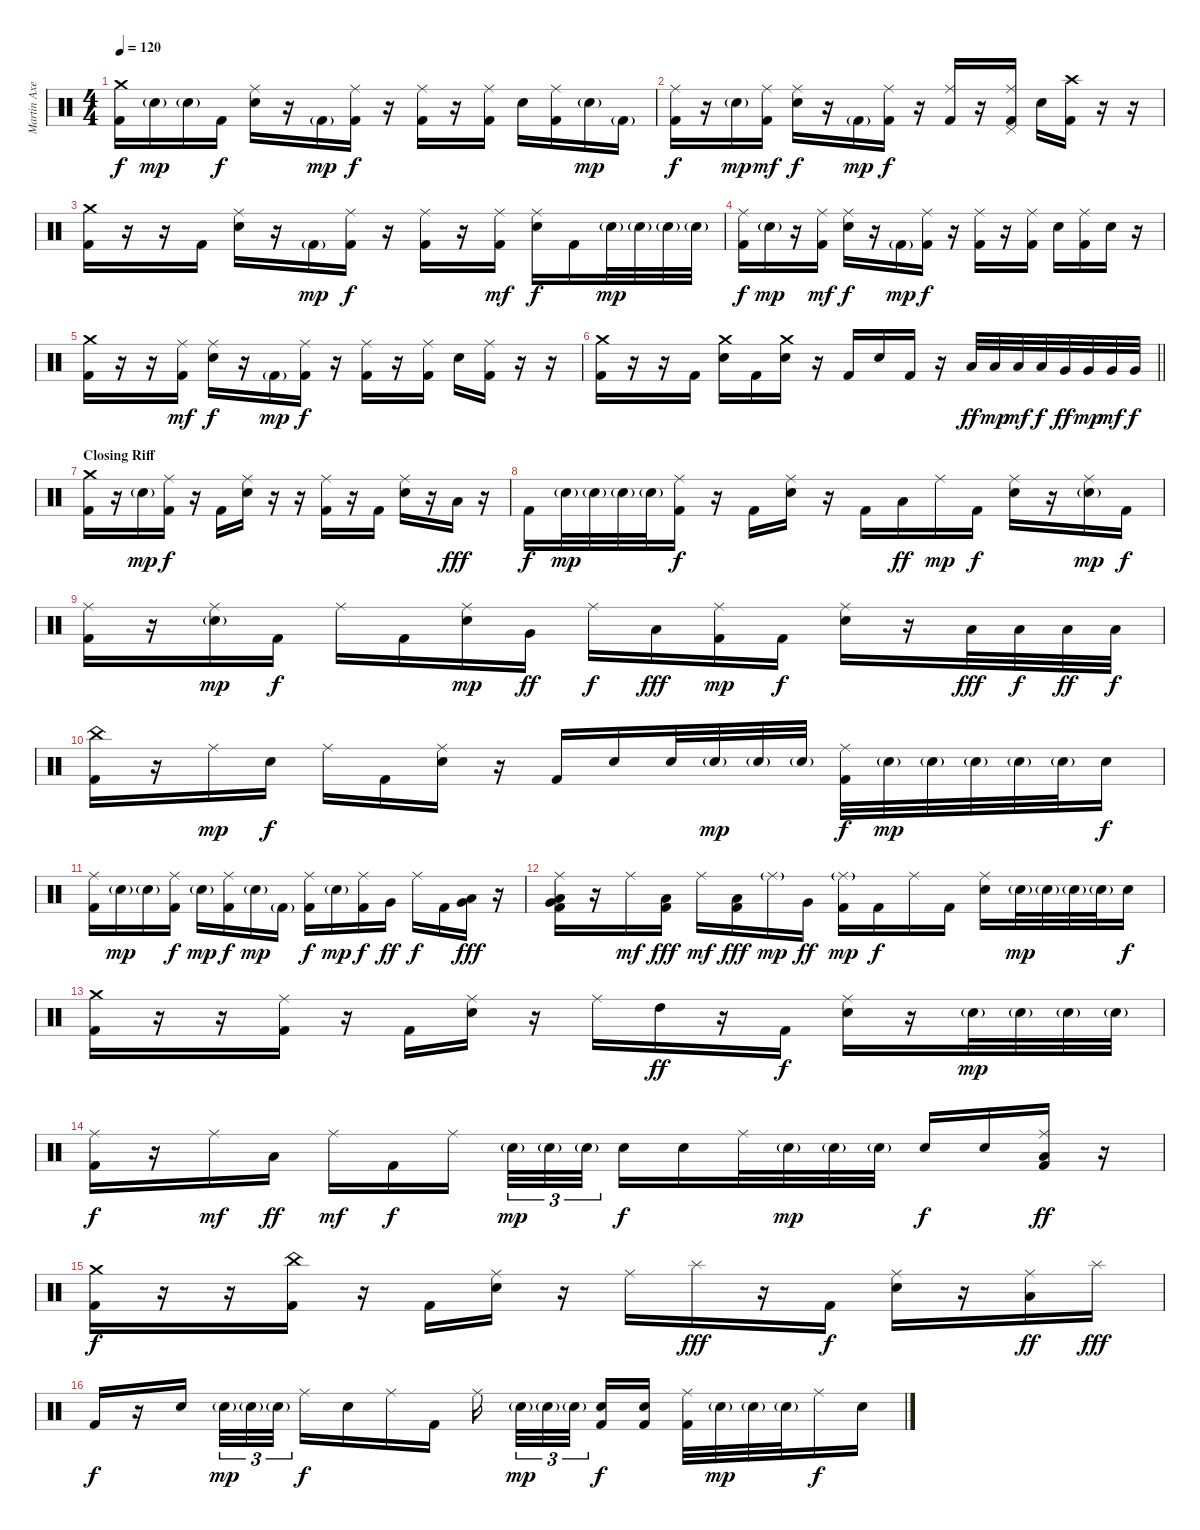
\track ("Martin Axenrot - Drums" "Martin Axe") {instrument percussion}
\staff {score}
\articulation defaults
\ts (4 4)
\tempo 120
\clef neutral
\ks c
("Crash medium (hit)" "Kick (hit) 2").16{dy f} "Snare (hit) 2"{g}.16{dy mp} "Snare (hit) 2"{g}.16 "Kick (hit) 2".16{dy f} ("Ride (middle)" "Snare (hit) 2").16 r.16 "Kick (hit) 2"{g}.16{dy mp} ("Ride (middle)" "Kick (hit) 2").16{dy f} r.16 ("Ride (middle)" "Kick (hit) 2").16 r.16 ("Ride (middle)" "Kick (hit) 2").16 "Snare (hit) 2".16 ("Ride (middle)" "Kick (hit) 2").16 "Snare (hit) 2"{g}.16{dy mp} "Kick (hit) 2"{g}.16 |
("Ride (middle)" "Kick (hit) 2").16{dy f} r.16 "Snare (hit) 2"{g}.16{dy mp} ("Ride (middle)" "Kick (hit) 2").16{dy mf} ("Ride (middle)" "Snare (hit) 2").16{dy f} r.16 "Kick (hit) 2"{g}.16{dy mp} ("Ride (middle)" "Kick (hit) 2").16{dy f} r.16 ("Ride (middle)" "Kick (hit) 2").16 r.16 ("Ride (middle)" "Pedal Hi-Hat (hit)" "Kick (hit) 2").16 "Snare (hit) 2".16 ("Crash high (hit)" "Kick (hit) 2").16 r.16 r.16 |
("Crash medium (hit)" "Kick (hit) 2").16 r.16 r.16 "Kick (hit) 2".16 ("Ride (middle)" "Snare (hit) 2").16 r.16 "Kick (hit) 2"{g}.16{dy mp} ("Ride (middle)" "Kick (hit) 2").16{dy f} r.16 ("Ride (middle)" "Kick (hit) 2").16 r.16 ("Ride (middle)" "Kick (hit) 2").16{dy mf} ("Ride (middle)" "Snare (hit) 2").16{dy f} "Kick (hit) 2".16 "Snare (hit) 2"{g}.32{dy mp} "Snare (hit) 2"{g}.32 "Snare (hit) 2"{g}.32 "Snare (hit) 2"{g}.32 |
("Ride (middle)" "Kick (hit) 2").16{dy f} "Snare (hit) 2"{g}.16{dy mp} r.16 ("Ride (middle)" "Kick (hit) 2").16{dy mf} ("Ride (middle)" "Snare (hit) 2").16{dy f} r.16 "Kick (hit) 2"{g}.16{dy mp} ("Ride (middle)" "Kick (hit) 2").16{dy f} r.16 ("Ride (middle)" "Kick (hit) 2").16 r.16 ("Ride (middle)" "Kick (hit) 2").16 "Snare (hit) 2".16 ("Ride (middle)" "Kick (hit) 2").16 "Snare (hit) 2".16 r.16 |
("Crash medium (hit)" "Kick (hit) 2").16 r.16 r.16 ("Ride (middle)" "Kick (hit) 2").16{dy mf} ("Ride (middle)" "Snare (hit) 2").16{dy f} r.16 "Kick (hit) 2"{g}.16{dy mp} ("Ride (middle)" "Kick (hit) 2").16{dy f} r.16 ("Ride (middle)" "Kick (hit) 2").16 r.16 ("Ride (middle)" "Kick (hit) 2").16 "Snare (hit) 2".16 ("Ride (middle)" "Kick (hit) 2").16 r.16 r.16 |
\barLineRight lightlight
("Crash medium (hit)" "Kick (hit) 2").16 r.16 r.16 "Kick (hit) 2".16 ("Crash medium (hit)" "Snare (hit) 2").16 "Kick (hit) 2".16 ("Crash medium (hit)" "Snare (hit) 2").16 r.16 "Kick (hit) 2".16 "Snare (hit) 2".16 "Kick (hit) 2".16 r.16 "Low Tom (hit)".32{dy ff} "Low Tom (hit)".32{dy mp} "Low Tom (hit)".32{dy mf} "Low Tom (hit)".32{dy f} "Very Low Tom (hit)".32{dy ff} "Very Low Tom (hit)".32{dy mp} "Very Low Tom (hit)".32{dy mf} "Very Low Tom (hit)".32{dy f} |
\section ("" "Closing Riff")
("Crash medium (hit)" "Kick (hit) 2").16 r.16 "Snare (hit) 2"{g}.16{dy mp} ("Ride (middle)" "Kick (hit) 2").16{dy f} r.16 "Kick (hit) 2".16 ("Ride (middle)" "Snare (hit) 2").16 r.16 r.16 ("Ride (middle)" "Kick (hit) 2").16 r.16 "Kick (hit) 2".16 ("Ride (middle)" "Snare (hit) 2").16 r.16 "Low Floor Tom (hit)".16{dy fff} r.16 |
"Kick (hit) 2".16{dy f} "Snare (hit) 2"{g}.32{dy mp} "Snare (hit) 2"{g}.32 "Snare (hit) 2"{g}.32 "Snare (hit) 2"{g}.32 ("Ride (middle)" "Kick (hit) 2").16{dy f} r.16 "Kick (hit) 2".16 ("Ride (middle)" "Snare (hit) 2").16 r.16 "Kick (hit) 2".16 "Low Tom (hit)".16{dy ff} "Ride (middle)".16{dy mp} "Kick (hit) 2".16{dy f} ("Ride (middle)" "Snare (hit) 2").16 r.16 ("Ride (middle)" "Snare (hit) 2"{g}).16{dy mp} "Kick (hit) 2".16{dy f} |
("Ride (middle)" "Kick (hit) 2").16 r.16 ("Ride (middle)" "Snare (hit) 2"{g}).16{dy mp} "Kick (hit) 2".16{dy f} "Ride (middle)".16 "Kick (hit) 2".16 ("Ride (middle)" "Snare (hit) 2").16{dy mp} "Very Low Tom (hit)".16{dy ff} "Ride (middle)".16{dy f} "Low Tom (hit)".16{dy fff} ("Ride (middle)" "Kick (hit) 2").16{dy mp} "Kick (hit) 2".16{dy f} ("Ride (middle)" "Snare (hit) 2").16 r.16 "Low Floor Tom (hit)".32{dy fff} "Low Floor Tom (hit)".32{dy f} "Low Floor Tom (hit)".32{dy ff} "Low Floor Tom (hit)".32{dy f} |
("China (hit)" "Kick (hit) 2").16 r.16 "Ride (middle)".16{dy mp} "Snare (hit) 2".16{dy f} "Ride (middle)".16 "Kick (hit) 2".16 ("Ride (middle)" "Snare (hit) 2").16 r.16 "Kick (hit) 2".16 "Snare (hit) 2".16 "Snare (hit) 2".32 "Snare (hit) 2"{g}.32{dy mp} "Snare (hit) 2"{g}.32 "Snare (hit) 2"{g}.32 ("Ride (middle)" "Kick (hit) 2").32{dy f} "Snare (hit) 2"{g}.32{dy mp} "Snare (hit) 2"{g}.32 "Snare (hit) 2"{g}.32 "Snare (hit) 2"{g}.32 "Snare (hit) 2"{g}.32 "Snare (hit) 2".16{dy f} |
("Ride (middle)" "Kick (hit) 2").16 "Snare (hit) 2"{g}.16{dy mp} "Snare (hit) 2"{g}.16 ("Ride (middle)" "Kick (hit) 2").16{dy f} "Snare (hit) 2"{g}.16{dy mp} ("Ride (middle)" "Kick (hit) 2").16{dy f} "Snare (hit) 2"{g}.16{dy mp} "Kick (hit) 2"{g}.16 ("Ride (middle)" "Kick (hit) 2").16{dy f} "Snare (hit) 2"{g}.16{dy mp} ("Ride (middle)" "Kick (hit) 2").16{dy f} "Very Low Tom (hit)".16{dy ff} "Ride (middle)".16{dy f} "Kick (hit) 2".16 ("Low Tom (hit)" "Very Low Tom (hit)").16{dy fff} r.16 |
("Ride (middle)" "Low Tom (hit)" "Very Low Tom (hit)" "Kick (hit) 2").16 r.16 "Ride (middle)".16{dy mf} ("Low Tom (hit)" "Kick (hit) 2").16{dy fff} "Ride (middle)".16{dy mf} ("Low Tom (hit)" "Kick (hit) 2").16{dy fff} "Ride (middle)"{g}.16{dy mp} "Very Low Tom (hit)".16{dy ff} ("Ride (middle)"{g} "Kick (hit) 2").16{dy mp} "Kick (hit) 2".16{dy f} "Ride (middle)".16 "Kick (hit) 2".16 ("Ride (middle)" "Snare (hit) 2").16 "Snare (hit) 2"{g}.32{dy mp} "Snare (hit) 2"{g}.32 "Snare (hit) 2"{g}.32 "Snare (hit) 2"{g}.32 "Snare (hit) 2".16{dy f} |
("Crash medium (hit)" "Kick (hit) 2").16 r.16 r.16 ("Ride (middle)" "Kick (hit) 2").16 r.16 "Kick (hit) 2".16 ("Ride (middle)" "Snare (hit) 2").16 r.16 "Ride (middle)".16 "High Tom (hit)".16{dy ff} r.16 "Kick (hit) 2".16{dy f} ("Ride (middle)" "Snare (hit) 2").16 r.16 "Snare (hit) 2"{g}.32{dy mp} "Snare (hit) 2"{g}.32 "Snare (hit) 2"{g}.32 "Snare (hit) 2"{g}.32 |
("Ride (middle)" "Kick (hit) 2").16{dy f} r.16 "Ride (middle)".16{dy mf} "Low Tom (hit)".16{dy ff} "Ride (middle)".16{dy mf} "Kick (hit) 2".16{dy f} "Ride (middle)".16{beam splitsecondary} "Snare (hit) 2"{g}.32{tu (3 2) dy mp} "Snare (hit) 2"{g}.32{tu (3 2)} "Snare (hit) 2"{g}.32{tu (3 2)} "Snare (hit) 2".16{dy f} "Snare (hit) 2".16 "Ride (middle)".32 "Snare (hit) 2"{g}.32{dy mp} "Snare (hit) 2"{g}.32 "Snare (hit) 2"{g}.32 "Snare (hit) 2".16{dy f} "Snare (hit) 2".16 ("Ride (middle)" "Low Floor Tom (hit)" "Kick (hit) 2").16{dy ff} r.16 |
("Crash medium (hit)" "Kick (hit) 2").16{dy f} r.16 r.16 ("China (hit)" "Kick (hit) 2").16 r.16 "Kick (hit) 2".16 ("Ride (middle)" "Snare (hit) 2").16 r.16 "Ride (middle)".16 "Splash (hit)".16{dy fff} r.16 "Kick (hit) 2".16{dy f} ("Ride (middle)" "Snare (hit) 2").16 r.16 ("Ride (middle)" "Low Floor Tom (hit)").16{dy ff} "Splash (hit)".16{dy fff} |
"Kick (hit) 2".16{dy f} r.16 "Snare (hit) 2".16{beam splitsecondary} "Snare (hit) 2"{g}.32{tu (3 2) dy mp} "Snare (hit) 2"{g}.32{tu (3 2)} "Snare (hit) 2"{g}.32{tu (3 2)} "Ride (middle)".16{dy f} "Snare (hit) 2".16 "Ride (middle)".16 "Kick (hit) 2".16 "Ride (middle)".16{beam splitsecondary} "Snare (hit) 2"{g}.32{tu (3 2) dy mp} "Snare (hit) 2"{g}.32{tu (3 2)} "Snare (hit) 2"{g}.32{tu (3 2) beam splitsecondary} ("Snare (hit) 2" "Kick (hit) 2").16{dy f} ("Snare (hit) 2" "Kick (hit) 2").16 ("Ride (middle)" "Kick (hit) 2").32 "Snare (hit) 2"{g}.32{dy mp} "Snare (hit) 2"{g}.32 "Snare (hit) 2"{g}.32 "Ride (middle)".16{dy f} "Snare (hit) 2".16
